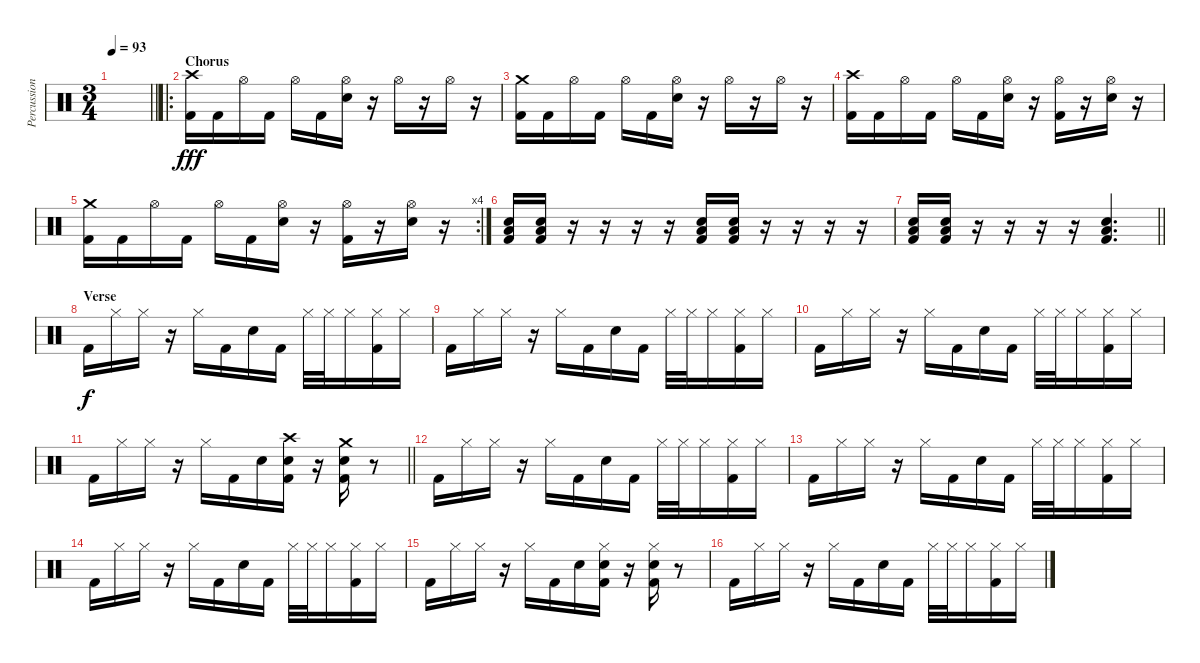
\track ("Percussion" "Percussion") {instrument percussion}
\staff {score}
\articulation defaults
\ts (3 4)
\tempo 93
\clef neutral
\barLineRight lightlight
\ks c
|
\ro
\section ("" "Chorus")
("Crash high (hit)" "Kick (hit) 2").16{dy fff} "Kick (hit) 2".16 "Hi-Hat (open)".16 "Kick (hit) 2".16 "Hi-Hat (open)".16 "Kick (hit) 2".16 ("Hi-Hat (open)" "Snare (hit) 2").16 r.16 "Hi-Hat (open)".16 r.16 "Hi-Hat (open)".16 r.16 |
("Crash medium (hit)" "Kick (hit) 2").16 "Kick (hit) 2".16 "Hi-Hat (open)".16 "Kick (hit) 2".16 "Hi-Hat (open)".16 "Kick (hit) 2".16 ("Hi-Hat (open)" "Snare (hit) 2").16 r.16 "Hi-Hat (open)".16 r.16 "Hi-Hat (open)".16 r.16 |
("Crash high (hit)" "Kick (hit) 2").16 "Kick (hit) 2".16 "Hi-Hat (open)".16 "Kick (hit) 2".16 "Hi-Hat (open)".16 "Kick (hit) 2".16 ("Hi-Hat (open)" "Snare (hit) 2").16 r.16 ("Hi-Hat (open)" "Kick (hit) 2").16 r.16 ("Hi-Hat (open)" "Snare (hit) 2").16 r.16 |
\rc 4
("Crash medium (hit)" "Kick (hit) 2").16 "Kick (hit) 2".16 "Hi-Hat (open)".16 "Kick (hit) 2".16 "Hi-Hat (open)".16 "Kick (hit) 2".16 ("Hi-Hat (open)" "Snare (hit) 2").16 r.16 ("Hi-Hat (open)" "Kick (hit) 2").16 r.16 ("Hi-Hat (open)" "Snare (hit) 2").16 r.16 |
("Snare (hit) 2" "Low Floor Tom (hit)" "Kick (hit) 2").16 ("Snare (hit) 2" "Low Floor Tom (hit)" "Kick (hit) 2").16 r.16 r.16 r.16 r.16 ("Snare (hit) 2" "Low Floor Tom (hit)" "Kick (hit) 2").16 ("Snare (hit) 2" "Low Floor Tom (hit)" "Kick (hit) 2").16 r.16 r.16 r.16 r.16 |
\barLineRight lightlight
("Snare (hit) 2" "Low Floor Tom (hit)" "Kick (hit) 2").16 ("Snare (hit) 2" "Low Floor Tom (hit)" "Kick (hit) 2").16 r.16 r.16 r.16 r.16 ("Snare (hit) 2" "Low Floor Tom (hit)" "Kick (hit) 2").4{d} |
\section ("" "Verse")
"Kick (hit) 2".16{dy f} "Hi-Hat (closed)".16 "Hi-Hat (closed)".16 r.16 "Hi-Hat (closed)".16 "Kick (hit) 2".16 "Snare (hit) 2".16 "Kick (hit) 2".16 "Hi-Hat (closed)".32 "Hi-Hat (closed)".32 "Hi-Hat (closed)".16 ("Hi-Hat (closed)" "Kick (hit) 2").16 "Hi-Hat (closed)".16 |
"Kick (hit) 2".16 "Hi-Hat (closed)".16 "Hi-Hat (closed)".16 r.16 "Hi-Hat (closed)".16 "Kick (hit) 2".16 "Snare (hit) 2".16 "Kick (hit) 2".16 "Hi-Hat (closed)".32 "Hi-Hat (closed)".32 "Hi-Hat (closed)".16 ("Hi-Hat (closed)" "Kick (hit) 2").16 "Hi-Hat (closed)".16 |
"Kick (hit) 2".16 "Hi-Hat (closed)".16 "Hi-Hat (closed)".16 r.16 "Hi-Hat (closed)".16 "Kick (hit) 2".16 "Snare (hit) 2".16 "Kick (hit) 2".16 "Hi-Hat (closed)".32 "Hi-Hat (closed)".32 "Hi-Hat (closed)".16 ("Hi-Hat (closed)" "Kick (hit) 2").16 "Hi-Hat (closed)".16 |
\barLineRight lightlight "Kick (hit) 2".16 "Hi-Hat (closed)".16 "Hi-Hat (closed)".16
r.16 "Hi-Hat (closed)".16 "Kick (hit) 2".16 "Snare (hit) 2".16 ("Crash high (hit)" "Snare (hit) 2" "Kick (hit) 2").16 r.16 ("Crash medium (hit)" "Snare (hit) 2" "Kick (hit) 2").16 r.8 |
"Kick (hit) 2".16 "Hi-Hat (closed)".16 "Hi-Hat (closed)".16 r.16 "Hi-Hat (closed)".16 "Kick (hit) 2".16 "Snare (hit) 2".16 "Kick (hit) 2".16 "Hi-Hat (closed)".32 "Hi-Hat (closed)".32 "Hi-Hat (closed)".16 ("Hi-Hat (closed)" "Kick (hit) 2").16 "Hi-Hat (closed)".16 |
"Kick (hit) 2".16 "Hi-Hat (closed)".16 "Hi-Hat (closed)".16 r.16 "Hi-Hat (closed)".16 "Kick (hit) 2".16 "Snare (hit) 2".16 "Kick (hit) 2".16 "Hi-Hat (closed)".32 "Hi-Hat (closed)".32 "Hi-Hat (closed)".16 ("Hi-Hat (closed)" "Kick (hit) 2").16 "Hi-Hat (closed)".16 |
"Kick (hit) 2".16 "Hi-Hat (closed)".16 "Hi-Hat (closed)".16 r.16 "Hi-Hat (closed)".16 "Kick (hit) 2".16 "Snare (hit) 2".16 "Kick (hit) 2".16 "Hi-Hat (closed)".32 "Hi-Hat (closed)".32 "Hi-Hat (closed)".16 ("Hi-Hat (closed)" "Kick (hit) 2").16 "Hi-Hat (closed)".16 |
"Kick (hit) 2".16 "Hi-Hat (closed)".16 "Hi-Hat (closed)".16 r.16 "Hi-Hat (closed)".16 "Kick (hit) 2".16 "Snare (hit) 2".16 ("Hi-Hat (closed)" "Snare (hit) 2" "Kick (hit) 2").16 r.16 ("Hi-Hat (closed)" "Snare (hit) 2" "Kick (hit) 2").16 r.8 |
"Kick (hit) 2".16 "Hi-Hat (closed)".16 "Hi-Hat (closed)".16 r.16 "Hi-Hat (closed)".16 "Kick (hit) 2".16 "Snare (hit) 2".16 "Kick (hit) 2".16 "Hi-Hat (closed)".32 "Hi-Hat (closed)".32 "Hi-Hat (closed)".16 ("Hi-Hat (closed)" "Kick (hit) 2").16 "Hi-Hat (closed)".16
